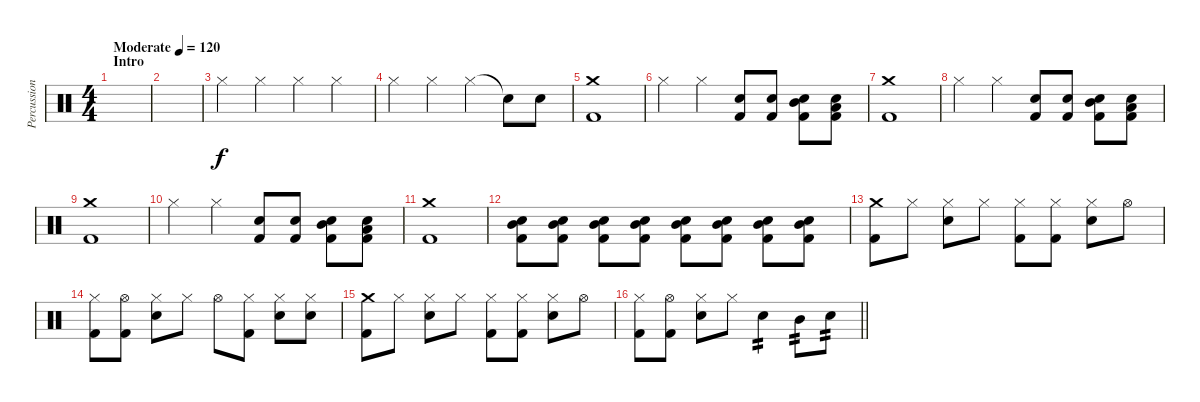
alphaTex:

\track ("Percussion" "Percussion") {instrument percussion}
\staff {score}
\articulation defaults
\ts (4 4)
\section ("" "Intro")
\tempo (120 "Moderate")
\clef neutral
\ks c
|
|
"Hi-Hat (closed)".4 "Hi-Hat (closed)".4 "Hi-Hat (closed)".4 "Hi-Hat (closed)".4 |
"Hi-Hat (closed)".4 "Hi-Hat (closed)".4 "Hi-Hat (closed)".4 "Snare (hit)"{t}.8 "Snare (hit) 2".8 |
("Crash medium (hit)" "Kick (hit) 2").1 |
"Hi-Hat (closed)".4 "Hi-Hat (closed)".4 ("Snare (hit) 2" "Kick (hit) 2").8 ("Snare (hit) 2" "Kick (hit) 2").8 ("Mid Tom (hit)" "Snare (hit) 2" "Kick (hit) 2").8 ("Low Tom (hit)" "Snare (hit) 2" "Kick (hit) 2").8 |
("Crash medium (hit)" "Kick (hit) 2").1 |
"Hi-Hat (closed)".4 "Hi-Hat (closed)".4 ("Snare (hit) 2" "Kick (hit) 2").8 ("Snare (hit) 2" "Kick (hit) 2").8 ("Mid Tom (hit)" "Snare (hit) 2" "Kick (hit) 2").8 ("Low Tom (hit)" "Snare (hit) 2" "Kick (hit) 2").8 |
("Crash medium (hit)" "Kick (hit) 2").1 |
"Hi-Hat (closed)".4 "Hi-Hat (closed)".4 ("Snare (hit) 2" "Kick (hit) 2").8 ("Snare (hit) 2" "Kick (hit) 2").8 ("Mid Tom (hit)" "Snare (hit) 2" "Kick (hit) 2").8 ("Low Tom (hit)" "Snare (hit) 2" "Kick (hit) 2").8 |
("Crash medium (hit)" "Kick (hit) 2").1 |
("Mid Tom (hit)" "Snare (hit) 2" "Kick (hit) 2").8 ("Mid Tom (hit)" "Snare (hit) 2" "Kick (hit) 2").8 ("Mid Tom (hit)" "Snare (hit) 2" "Kick (hit) 2").8 ("Mid Tom (hit)" "Snare (hit) 2" "Kick (hit) 2").8 ("Mid Tom (hit)" "Snare (hit) 2" "Kick (hit) 2").8 ("Mid Tom (hit)" "Snare (hit) 2" "Kick (hit) 2").8 ("Mid Tom (hit)" "Snare (hit) 2" "Kick (hit) 2").8 ("Mid Tom (hit)" "Snare (hit) 2" "Kick (hit) 2").8 |
("Crash medium (hit)" "Kick (hit) 2").8 "Hi-Hat (closed)".8 ("Hi-Hat (closed)" "Snare (hit) 2").8 "Hi-Hat (closed)".8 ("Hi-Hat (closed)" "Kick (hit) 2").8 ("Hi-Hat (closed)" "Kick (hit) 2").8 ("Hi-Hat (closed)" "Snare (hit) 2").8 "Hi-Hat (open)".8 |
("Hi-Hat (closed)" "Kick (hit) 2").8 ("Hi-Hat (open)" "Kick (hit) 2").8 ("Hi-Hat (closed)" "Snare (hit) 2").8 "Hi-Hat (closed)".8 "Hi-Hat (open)".8 ("Hi-Hat (closed)" "Kick (hit) 2").8 ("Hi-Hat (closed)" "Snare (hit) 2").8 ("Hi-Hat (closed)" "Snare (hit) 2").8 |
("Crash medium (hit)" "Kick (hit) 2").8 "Hi-Hat (closed)".8 ("Hi-Hat (closed)" "Snare (hit) 2").8 "Hi-Hat (closed)".8 ("Hi-Hat (closed)" "Kick (hit) 2").8 ("Hi-Hat (closed)" "Kick (hit) 2").8 ("Hi-Hat (closed)" "Snare (hit) 2").8 "Hi-Hat (open)".8 |
\barLineRight lightlight
("Hi-Hat (closed)" "Kick (hit) 2").8 ("Hi-Hat (open)" "Kick (hit) 2").8 ("Hi-Hat (closed)" "Snare (hit) 2").8 "Hi-Hat (closed)".8 "Snare (hit) 2".4{tp 2} "Mid Tom (hit)".8{tp 2} "Snare (hit) 2".8{tp 2}
